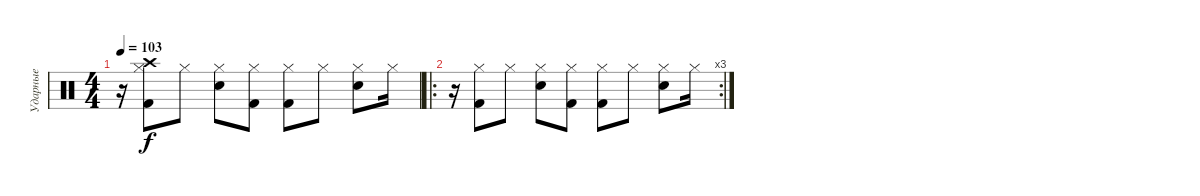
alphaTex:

\track ("Ударные" "Ударные") {instrument percussion}
\staff {score}
\articulation defaults
\ts (4 4)
\tempo 103
\clef neutral
\ks c
r.16{dy f} ("Hi-Hat (closed)" "Kick (hit) 2" "Crash high (hit)").8 "Hi-Hat (closed)".8 ("Hi-Hat (closed)" "Electric Snare (hit)").8 ("Hi-Hat (closed)" "Kick (hit) 2").8 ("Hi-Hat (closed)" "Kick (hit) 2").8 "Hi-Hat (closed)".8 ("Hi-Hat (closed)" "Electric Snare (hit)").8 "Hi-Hat (closed)".16 |
\ro
\rc 3
r.16 ("Hi-Hat (closed)" "Kick (hit) 2").8 "Hi-Hat (closed)".8 ("Hi-Hat (closed)" "Electric Snare (hit)").8 ("Hi-Hat (closed)" "Kick (hit) 2").8 ("Hi-Hat (closed)" "Kick (hit) 2").8 "Hi-Hat (closed)".8 ("Hi-Hat (closed)" "Electric Snare (hit)").8 "Hi-Hat (closed)".16
